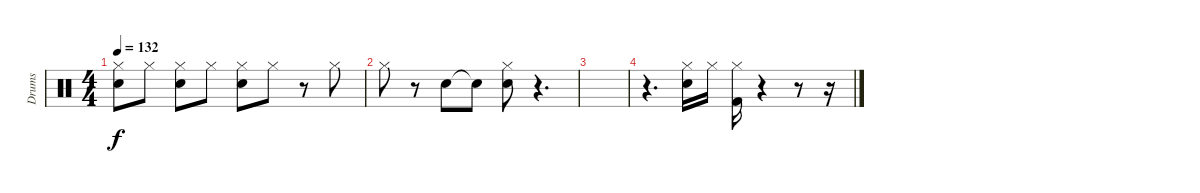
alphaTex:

\track ("Drums" "Drums") {instrument percussion}
\staff {score}
\articulation defaults
\ts (4 4)
\tempo 132
\clef neutral
\ks c
("Hi-Hat (closed)" "Electric Snare (hit)").8{dy f} "Hi-Hat (closed)".8 ("Hi-Hat (closed)" "Electric Snare (hit)").8 "Hi-Hat (closed)".8 ("Hi-Hat (closed)" "Electric Snare (hit)").8 "Hi-Hat (closed)".8 r.8 "Hi-Hat (closed)".8 |
"Hi-Hat (closed)".8 r.8 "Electric Snare (hit)".8 "Snare (hit)"{t}.8 ("Hi-Hat (closed)" "Electric Snare (hit)").8 r.4{d} |
|
r.4{d} ("Hi-Hat (closed)" "Electric Snare (hit)").16 "Hi-Hat (closed)".16 ("Hi-Hat (closed)" "Kick (hit) 2").16 r.4 r.8 r.16
